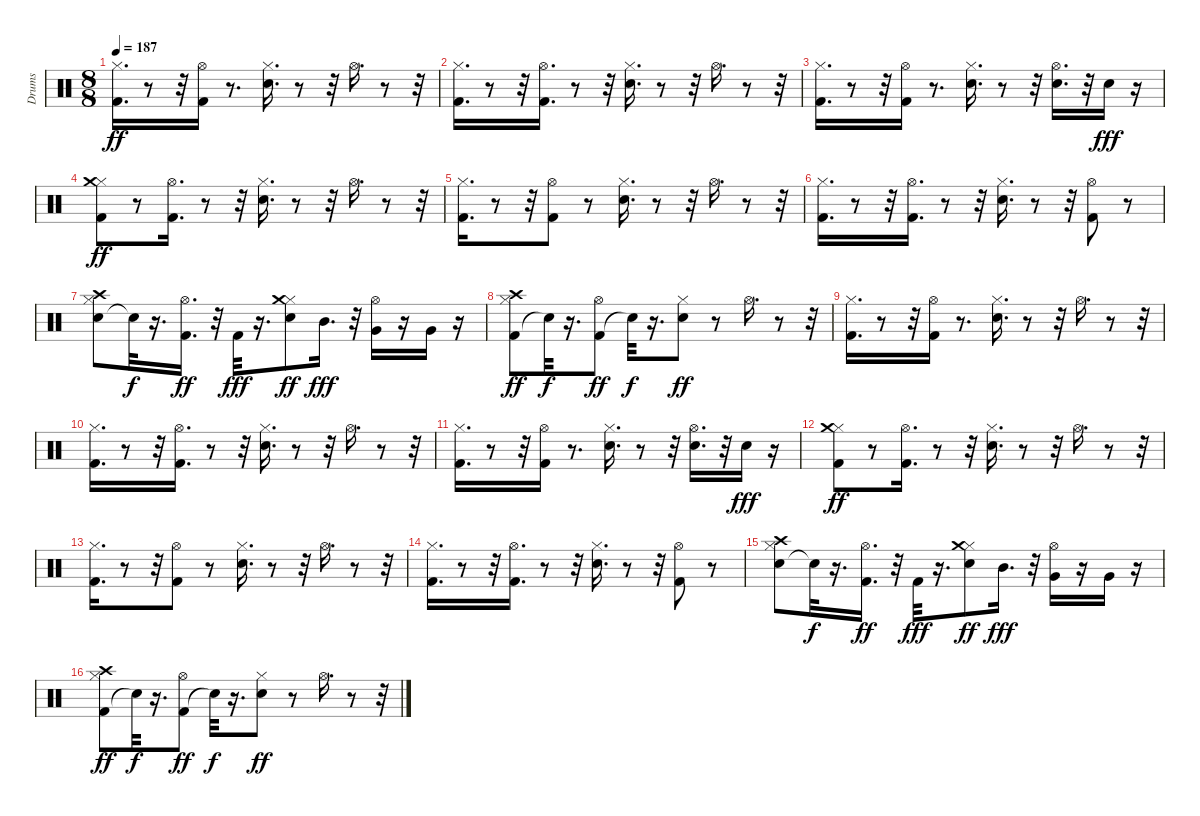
\track ("Drums" "Drums") {instrument percussion}
\staff {score}
\articulation defaults
\ts (8 8)
\tempo 187
\clef neutral
\ks c
("Kick (hit) 2" "Hi-Hat (closed)").16{d dy ff} r.8 r.32 ("Kick (hit) 2" "Hi-Hat (open)").16 r.8{d} ("Snare (hit) 2" "Hi-Hat (closed)").16{d} r.8 r.32 "Hi-Hat (open)".16{d} r.8 r.32 |
("Kick (hit) 2" "Hi-Hat (closed)").16{d} r.8 r.32 ("Kick (hit) 2" "Hi-Hat (open)").16{d} r.8 r.32 ("Snare (hit) 2" "Hi-Hat (closed)").16{d} r.8 r.32 "Hi-Hat (open)".16{d} r.8 r.32 |
("Kick (hit) 2" "Hi-Hat (closed)").16{d} r.8 r.32 ("Kick (hit) 2" "Hi-Hat (open)").16 r.8{d} ("Snare (hit) 2" "Hi-Hat (closed)").16{d} r.8 r.32 ("Snare (hit) 2" "Hi-Hat (open)").16{d} r.32 "Snare (hit) 2".16{dy fff} r.16 |
("Kick (hit) 2" "Hi-Hat (closed)" "Crash medium (hit)").8{dy ff} r.8 ("Kick (hit) 2" "Hi-Hat (open)").16{d} r.8 r.32 ("Snare (hit) 2" "Hi-Hat (closed)").16{d} r.8 r.32 "Hi-Hat (open)".16{d} r.8 r.32 |
("Kick (hit) 2" "Hi-Hat (closed)").16{d} r.8 r.32 ("Kick (hit) 2" "Hi-Hat (open)").8 r.8 ("Snare (hit) 2" "Hi-Hat (closed)").16{d} r.8 r.32 "Hi-Hat (open)".16{d} r.8 r.32 |
("Kick (hit) 2" "Hi-Hat (closed)").16{d} r.8 r.32 ("Kick (hit) 2" "Hi-Hat (open)").16{d} r.8 r.32 ("Snare (hit) 2" "Hi-Hat (closed)").16{d} r.8 r.32 ("Kick (hit) 2" "Hi-Hat (open)").8 r.8 |
("Snare (hit) 2" "Hi-Hat (closed)" "Crash high (hit)").8 "Snare (hit)"{t}.32{dy f} r.16{d} ("Kick (hit) 2" "Hi-Hat (open)").16{d dy ff} r.32 "Kick (hit) 2".32{dy fff} r.16{d} ("Snare (hit) 2" "Hi-Hat (closed)" "Crash medium (hit)").8{dy ff} "Mid Tom (hit)".16{d dy fff} r.32 ("Hi-Hat (open)" "Very Low Tom (hit)").16 r.16 "Very Low Tom (hit)".16 r.16 |
("Kick (hit) 2" "Hi-Hat (closed)" "Crash high (hit)").8{dy ff} "Snare (hit)"{t}.32{dy f} r.16{d} ("Kick (hit) 2" "Hi-Hat (open)").8{dy ff} "Snare (hit)"{t}.32{dy f} r.16{d} ("Snare (hit) 2" "Hi-Hat (closed)").8{dy ff} r.8 "Hi-Hat (open)".16{d} r.8 r.32 |
("Kick (hit) 2" "Hi-Hat (closed)").16{d} r.8 r.32 ("Kick (hit) 2" "Hi-Hat (open)").16 r.8{d} ("Snare (hit) 2" "Hi-Hat (closed)").16{d} r.8 r.32 "Hi-Hat (open)".16{d} r.8 r.32 |
("Kick (hit) 2" "Hi-Hat (closed)").16{d} r.8 r.32 ("Kick (hit) 2" "Hi-Hat (open)").16{d} r.8 r.32 ("Snare (hit) 2" "Hi-Hat (closed)").16{d} r.8 r.32 "Hi-Hat (open)".16{d} r.8 r.32 |
("Kick (hit) 2" "Hi-Hat (closed)").16{d} r.8 r.32 ("Kick (hit) 2" "Hi-Hat (open)").16 r.8{d} ("Snare (hit) 2" "Hi-Hat (closed)").16{d} r.8 r.32 ("Snare (hit) 2" "Hi-Hat (open)").16{d} r.32 "Snare (hit) 2".16{dy fff} r.16 |
("Kick (hit) 2" "Hi-Hat (closed)" "Crash medium (hit)").8{dy ff} r.8 ("Kick (hit) 2" "Hi-Hat (open)").16{d} r.8 r.32 ("Snare (hit) 2" "Hi-Hat (closed)").16{d} r.8 r.32 "Hi-Hat (open)".16{d} r.8 r.32 |
("Kick (hit) 2" "Hi-Hat (closed)").16{d} r.8 r.32 ("Kick (hit) 2" "Hi-Hat (open)").8 r.8 ("Snare (hit) 2" "Hi-Hat (closed)").16{d} r.8 r.32 "Hi-Hat (open)".16{d} r.8 r.32 |
("Kick (hit) 2" "Hi-Hat (closed)").16{d} r.8 r.32 ("Kick (hit) 2" "Hi-Hat (open)").16{d} r.8 r.32 ("Snare (hit) 2" "Hi-Hat (closed)").16{d} r.8 r.32 ("Kick (hit) 2" "Hi-Hat (open)").8 r.8 |
("Snare (hit) 2" "Hi-Hat (closed)" "Crash high (hit)").8 "Snare (hit)"{t}.32{dy f} r.16{d} ("Kick (hit) 2" "Hi-Hat (open)").16{d dy ff} r.32 "Kick (hit) 2".32{dy fff} r.16{d} ("Snare (hit) 2" "Hi-Hat (closed)" "Crash medium (hit)").8{dy ff} "Mid Tom (hit)".16{d dy fff} r.32 ("Hi-Hat (open)" "Very Low Tom (hit)").16 r.16 "Very Low Tom (hit)".16 r.16 |
("Kick (hit) 2" "Hi-Hat (closed)" "Crash high (hit)").8{dy ff} "Snare (hit)"{t}.32{dy f} r.16{d} ("Kick (hit) 2" "Hi-Hat (open)").8{dy ff} "Snare (hit)"{t}.32{dy f} r.16{d} ("Snare (hit) 2" "Hi-Hat (closed)").8{dy ff} r.8 "Hi-Hat (open)".16{d} r.8 r.32
